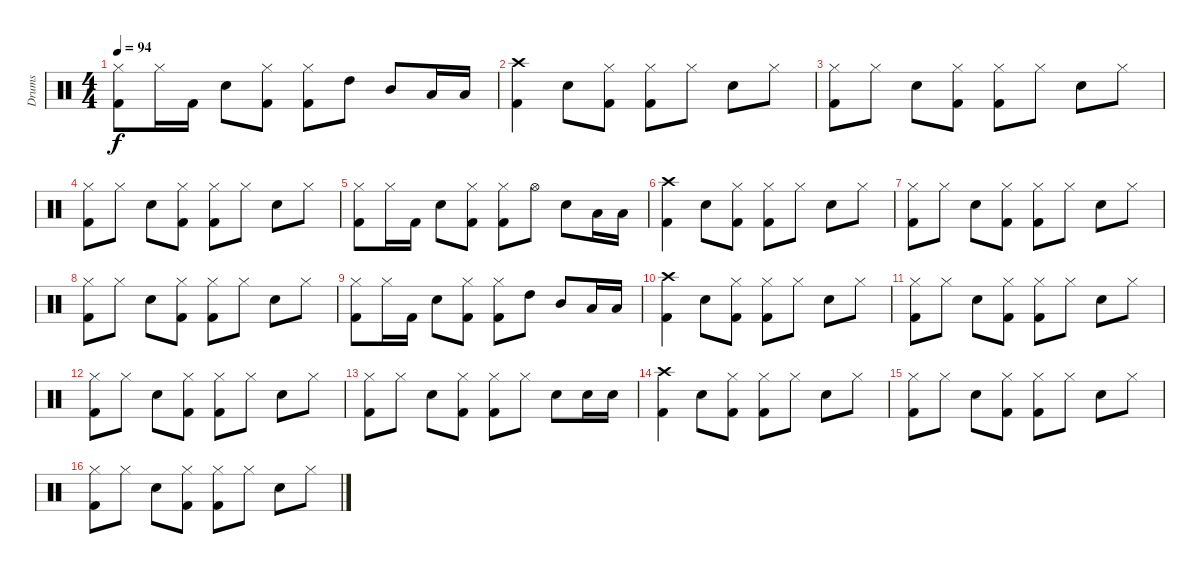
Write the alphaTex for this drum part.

\track ("Drums" "Drums") {instrument percussion}
\staff {score}
\articulation defaults
\ts (4 4)
\tempo 94
\clef neutral
\ks c
("Hi-Hat (closed)" "Kick (hit) 2").8{dy f} "Hi-Hat (closed)".16 "Kick (hit) 2".16 "Snare (hit) 2".8 ("Hi-Hat (closed)" "Kick (hit) 2").8 ("Hi-Hat (closed)" "Kick (hit) 2").8 "High Tom (hit)".8 "Mid Tom (hit)".8 "Low Tom (hit)".16 "Low Tom (hit)".16 |
("Crash high (hit)" "Kick (hit) 2").4 "Snare (hit) 2".8 ("Hi-Hat (closed)" "Kick (hit) 2").8 ("Hi-Hat (closed)" "Kick (hit) 2").8 "Hi-Hat (closed)".8 "Snare (hit) 2".8 "Hi-Hat (closed)".8 |
("Hi-Hat (closed)" "Kick (hit) 2").8 "Hi-Hat (closed)".8 "Snare (hit) 2".8 ("Hi-Hat (closed)" "Kick (hit) 2").8 ("Hi-Hat (closed)" "Kick (hit) 2").8 "Hi-Hat (closed)".8 "Snare (hit) 2".8 "Hi-Hat (closed)".8 |
("Hi-Hat (closed)" "Kick (hit) 2").8 "Hi-Hat (closed)".8 "Snare (hit) 2".8 ("Hi-Hat (closed)" "Kick (hit) 2").8 ("Hi-Hat (closed)" "Kick (hit) 2").8 "Hi-Hat (closed)".8 "Snare (hit) 2".8 "Hi-Hat (closed)".8 |
("Hi-Hat (closed)" "Kick (hit) 2").8 "Hi-Hat (closed)".16 "Kick (hit) 2".16 "Snare (hit) 2".8 ("Hi-Hat (closed)" "Kick (hit) 2").8 ("Hi-Hat (closed)" "Kick (hit) 2").8 "Hi-Hat (open)".8 "Snare (hit) 2".8 "Low Tom (hit)".16 "Low Tom (hit)".16 |
("Crash high (hit)" "Kick (hit) 2").4 "Snare (hit) 2".8 ("Hi-Hat (closed)" "Kick (hit) 2").8 ("Hi-Hat (closed)" "Kick (hit) 2").8 "Hi-Hat (closed)".8 "Snare (hit) 2".8 "Hi-Hat (closed)".8 |
("Hi-Hat (closed)" "Kick (hit) 2").8 "Hi-Hat (closed)".8 "Snare (hit) 2".8 ("Hi-Hat (closed)" "Kick (hit) 2").8 ("Hi-Hat (closed)" "Kick (hit) 2").8 "Hi-Hat (closed)".8 "Snare (hit) 2".8 "Hi-Hat (closed)".8 |
("Hi-Hat (closed)" "Kick (hit) 2").8 "Hi-Hat (closed)".8 "Snare (hit) 2".8 ("Hi-Hat (closed)" "Kick (hit) 2").8 ("Hi-Hat (closed)" "Kick (hit) 2").8 "Hi-Hat (closed)".8 "Snare (hit) 2".8 "Hi-Hat (closed)".8 |
("Hi-Hat (closed)" "Kick (hit) 2").8 "Hi-Hat (closed)".16 "Kick (hit) 2".16 "Snare (hit) 2".8 ("Hi-Hat (closed)" "Kick (hit) 2").8 ("Hi-Hat (closed)" "Kick (hit) 2").8 "High Tom (hit)".8 "Mid Tom (hit)".8 "Low Tom (hit)".16 "Low Tom (hit)".16 |
("Crash high (hit)" "Kick (hit) 2").4 "Snare (hit) 2".8 ("Hi-Hat (closed)" "Kick (hit) 2").8 ("Hi-Hat (closed)" "Kick (hit) 2").8 "Hi-Hat (closed)".8 "Snare (hit) 2".8 "Hi-Hat (closed)".8 |
("Hi-Hat (closed)" "Kick (hit) 2").8 "Hi-Hat (closed)".8 "Snare (hit) 2".8 ("Hi-Hat (closed)" "Kick (hit) 2").8 ("Hi-Hat (closed)" "Kick (hit) 2").8 "Hi-Hat (closed)".8 "Snare (hit) 2".8 "Hi-Hat (closed)".8 |
("Hi-Hat (closed)" "Kick (hit) 2").8 "Hi-Hat (closed)".8 "Snare (hit) 2".8 ("Hi-Hat (closed)" "Kick (hit) 2").8 ("Hi-Hat (closed)" "Kick (hit) 2").8 "Hi-Hat (closed)".8 "Snare (hit) 2".8 "Hi-Hat (closed)".8 |
("Hi-Hat (closed)" "Kick (hit) 2").8 "Hi-Hat (closed)".8 "Snare (hit) 2".8 ("Hi-Hat (closed)" "Kick (hit) 2").8 ("Hi-Hat (closed)" "Kick (hit) 2").8 "Hi-Hat (closed)".8 "Snare (hit) 2".8 "Snare (hit) 2".16 "Snare (hit) 2".16 |
("Crash high (hit)" "Kick (hit) 2").4 "Snare (hit) 2".8 ("Hi-Hat (closed)" "Kick (hit) 2").8 ("Hi-Hat (closed)" "Kick (hit) 2").8 "Hi-Hat (closed)".8 "Snare (hit) 2".8 "Hi-Hat (closed)".8 |
("Hi-Hat (closed)" "Kick (hit) 2").8 "Hi-Hat (closed)".8 "Snare (hit) 2".8 ("Hi-Hat (closed)" "Kick (hit) 2").8 ("Hi-Hat (closed)" "Kick (hit) 2").8 "Hi-Hat (closed)".8 "Snare (hit) 2".8 "Hi-Hat (closed)".8 |
("Hi-Hat (closed)" "Kick (hit) 2").8 "Hi-Hat (closed)".8 "Snare (hit) 2".8 ("Hi-Hat (closed)" "Kick (hit) 2").8 ("Hi-Hat (closed)" "Kick (hit) 2").8 "Hi-Hat (closed)".8 "Snare (hit) 2".8 "Hi-Hat (closed)".8
